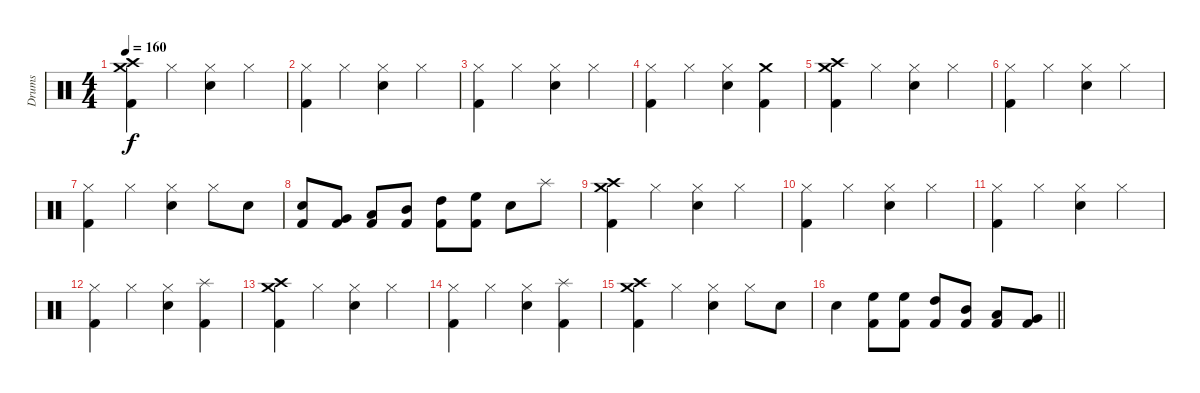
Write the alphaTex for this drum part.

\track ("Drums" "Drums") {instrument percussion}
\staff {score}
\articulation defaults
\ts (4 4)
\tempo 160
\clef neutral
\ks c
("Kick (hit) 2" "Crash high (hit)" "Crash medium (hit)").4{dy f} "Hi-Hat (closed)".4 ("Hi-Hat (closed)" "Electric Snare (hit)").4 "Hi-Hat (closed)".4 |
("Kick (hit) 2" "Hi-Hat (closed)").4 "Hi-Hat (closed)".4 ("Hi-Hat (closed)" "Electric Snare (hit)").4 "Hi-Hat (closed)".4 |
("Kick (hit) 2" "Hi-Hat (closed)").4 "Hi-Hat (closed)".4 ("Hi-Hat (closed)" "Electric Snare (hit)").4 "Hi-Hat (closed)".4 |
("Kick (hit) 2" "Hi-Hat (closed)").4 "Hi-Hat (closed)".4 ("Hi-Hat (closed)" "Electric Snare (hit)").4 ("Kick (hit) 2" "Crash medium (hit)").4 |
("Kick (hit) 2" "Crash high (hit)" "Crash medium (hit)").4 "Hi-Hat (closed)".4 ("Hi-Hat (closed)" "Electric Snare (hit)").4 "Hi-Hat (closed)".4 |
("Kick (hit) 2" "Hi-Hat (closed)").4 "Hi-Hat (closed)".4 ("Hi-Hat (closed)" "Electric Snare (hit)").4 "Hi-Hat (closed)".4 |
("Kick (hit) 2" "Hi-Hat (closed)").4 "Hi-Hat (closed)".4 ("Hi-Hat (closed)" "Electric Snare (hit)").4 "Hi-Hat (closed)".8 "Electric Snare (hit)".8 |
("Kick (hit) 2" "Electric Snare (hit)").8 ("Kick (hit) 2" "Very Low Tom (hit)").8 ("Kick (hit) 2" "Low Tom (hit)").8 ("Kick (hit) 2" "Mid Tom (hit)").8 ("Kick (hit) 2" "High Tom (hit)").8 ("Kick (hit) 2" "High Floor Tom (hit)").8 "Electric Snare (hit)".8 "Splash (hit)".8 |
("Kick (hit) 2" "Crash high (hit)" "Crash medium (hit)").4 "Hi-Hat (closed)".4 ("Hi-Hat (closed)" "Electric Snare (hit)").4 "Hi-Hat (closed)".4 |
("Kick (hit) 2" "Hi-Hat (closed)").4 "Hi-Hat (closed)".4 ("Hi-Hat (closed)" "Electric Snare (hit)").4 "Hi-Hat (closed)".4 |
("Kick (hit) 2" "Hi-Hat (closed)").4 "Hi-Hat (closed)".4 ("Hi-Hat (closed)" "Electric Snare (hit)").4 "Hi-Hat (closed)".4 |
("Kick (hit) 2" "Hi-Hat (closed)").4 "Hi-Hat (closed)".4 ("Hi-Hat (closed)" "Electric Snare (hit)").4 ("Kick (hit) 2" "Splash (hit)").4 |
("Kick (hit) 2" "Crash high (hit)" "Crash medium (hit)").4 "Hi-Hat (closed)".4 ("Hi-Hat (closed)" "Electric Snare (hit)").4 "Hi-Hat (closed)".4 |
("Kick (hit) 2" "Hi-Hat (closed)").4 "Hi-Hat (closed)".4 ("Hi-Hat (closed)" "Electric Snare (hit)").4 ("Kick (hit) 2" "Splash (hit)").4 |
("Kick (hit) 2" "Crash high (hit)" "Crash medium (hit)").4 "Hi-Hat (closed)".4 ("Hi-Hat (closed)" "Electric Snare (hit)").4 "Hi-Hat (closed)".8 "Electric Snare (hit)".8 |
\barLineRight lightlight "Electric Snare (hit)".4
("Kick (hit) 2" "High Floor Tom (hit)").8 ("Kick (hit) 2" "High Floor Tom (hit)").8 ("Kick (hit) 2" "High Tom (hit)").8 ("Kick (hit) 2" "Mid Tom (hit)").8 ("Kick (hit) 2" "Low Tom (hit)").8 ("Kick (hit) 2" "Very Low Tom (hit)").8
